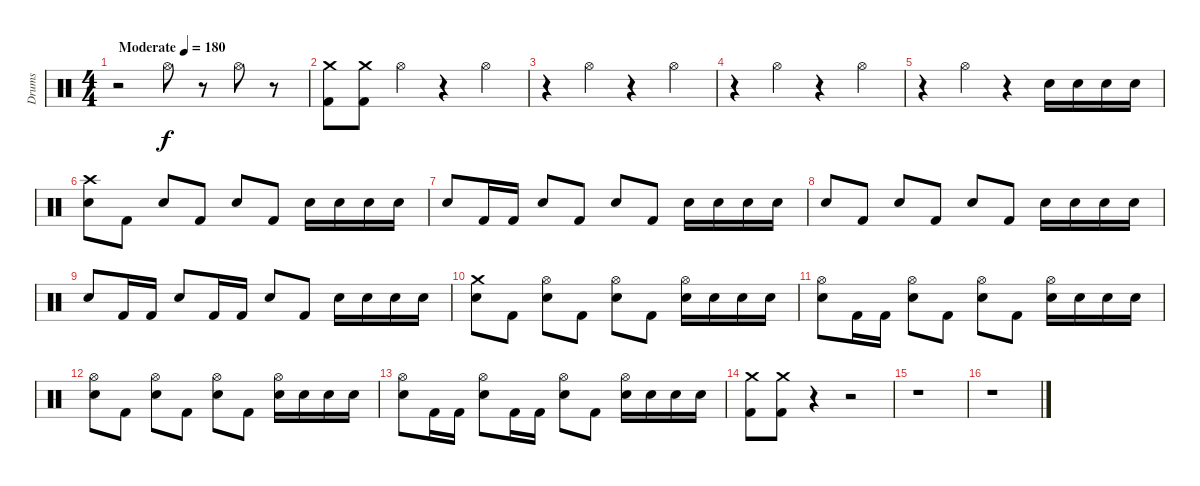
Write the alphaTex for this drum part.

\track ("Drums" "Drums") {instrument percussion}
\staff {score}
\articulation defaults
\ts (4 4)
\tempo (180 "Moderate")
\clef neutral
\ks c
r.2{dy f} "Hi-Hat (open)".8 r.8 "Hi-Hat (open)".8 r.8 |
("Crash medium (hit)" "Kick (hit) 2").8 ("Crash medium (hit)" "Kick (hit) 2").8 "Hi-Hat (open)".4 r.4 "Hi-Hat (open)".4 |
r.4 "Hi-Hat (open)".4 r.4 "Hi-Hat (open)".4 |
r.4 "Hi-Hat (open)".4 r.4 "Hi-Hat (open)".4 |
r.4 "Hi-Hat (open)".4 r.4 "Snare (hit) 2".16 "Snare (hit) 2".16 "Snare (hit) 2".16 "Snare (hit) 2".16 |
("Crash high (hit)" "Snare (hit) 2").8 "Kick (hit) 2".8 "Snare (hit) 2".8 "Kick (hit) 2".8 "Snare (hit) 2".8 "Kick (hit) 2".8 "Snare (hit) 2".16 "Snare (hit) 2".16 "Snare (hit) 2".16 "Snare (hit) 2".16 |
"Snare (hit) 2".8 "Kick (hit) 2".16 "Kick (hit) 2".16 "Snare (hit) 2".8 "Kick (hit) 2".8 "Snare (hit) 2".8 "Kick (hit) 2".8 "Snare (hit) 2".16 "Snare (hit) 2".16 "Snare (hit) 2".16 "Snare (hit) 2".16 |
"Snare (hit) 2".8 "Kick (hit) 2".8 "Snare (hit) 2".8 "Kick (hit) 2".8 "Snare (hit) 2".8 "Kick (hit) 2".8 "Snare (hit) 2".16 "Snare (hit) 2".16 "Snare (hit) 2".16 "Snare (hit) 2".16 |
"Snare (hit) 2".8 "Kick (hit) 2".16 "Kick (hit) 2".16 "Snare (hit) 2".8 "Kick (hit) 2".16 "Kick (hit) 2".16 "Snare (hit) 2".8 "Kick (hit) 2".8 "Snare (hit) 2".16 "Snare (hit) 2".16 "Snare (hit) 2".16 "Snare (hit) 2".16 |
("Crash medium (hit)" "Snare (hit) 2").8 "Kick (hit) 2".8 ("Hi-Hat (open)" "Snare (hit) 2").8 "Kick (hit) 2".8 ("Hi-Hat (open)" "Snare (hit) 2").8 "Kick (hit) 2".8 ("Hi-Hat (open)" "Snare (hit) 2").16 "Snare (hit) 2".16 "Snare (hit) 2".16 "Snare (hit) 2".16 |
("Hi-Hat (open)" "Snare (hit) 2").8 "Kick (hit) 2".16 "Kick (hit) 2".16 ("Hi-Hat (open)" "Snare (hit) 2").8 "Kick (hit) 2".8 ("Hi-Hat (open)" "Snare (hit) 2").8 "Kick (hit) 2".8 ("Hi-Hat (open)" "Snare (hit) 2").16 "Snare (hit) 2".16 "Snare (hit) 2".16 "Snare (hit) 2".16 |
("Hi-Hat (open)" "Snare (hit) 2").8 "Kick (hit) 2".8 ("Hi-Hat (open)" "Snare (hit) 2").8 "Kick (hit) 2".8 ("Hi-Hat (open)" "Snare (hit) 2").8 "Kick (hit) 2".8 ("Hi-Hat (open)" "Snare (hit) 2").16 "Snare (hit) 2".16 "Snare (hit) 2".16 "Snare (hit) 2".16 |
("Hi-Hat (open)" "Snare (hit) 2").8 "Kick (hit) 2".16 "Kick (hit) 2".16 ("Hi-Hat (open)" "Snare (hit) 2").8 "Kick (hit) 2".16 "Kick (hit) 2".16 ("Hi-Hat (open)" "Snare (hit) 2").8 "Kick (hit) 2".8 ("Hi-Hat (open)" "Snare (hit) 2").16 "Snare (hit) 2".16 "Snare (hit) 2".16 "Snare (hit) 2".16 |
("Crash medium (hit)" "Kick (hit) 2").8 ("Crash medium (hit)" "Kick (hit) 2").8 r.4 r.2 |
r.1 |
r.1
